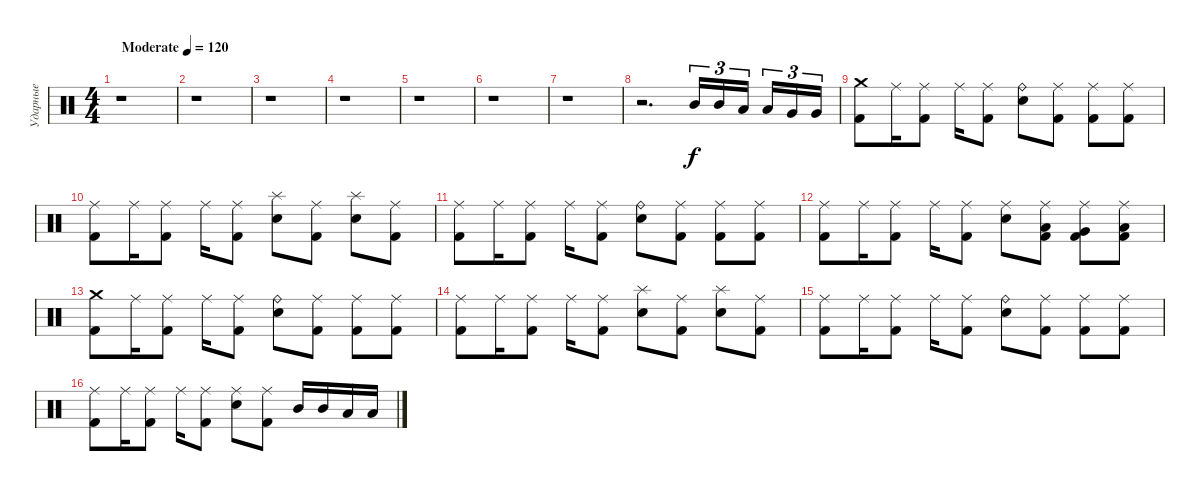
\track ("Ударные" "Ударные") {instrument percussion}
\staff {score}
\articulation defaults
\ts (4 4)
\tempo (120 "Moderate")
\clef neutral
\ks c
r.1{dy f} |
r.1 |
r.1 |
r.1 |
r.1 |
r.1 |
r.1 |
r.2{d} "Mid Tom (hit)".16{tu (3 2)} "Mid Tom (hit)".16{tu (3 2)} "Low Tom (hit)".16{tu (3 2) beam splitsecondary} "Low Tom (hit)".16{tu (3 2)} "Very Low Tom (hit)".16{tu (3 2)} "Very Low Tom (hit)".16{tu (3 2)} |
("Crash medium (hit)" "Kick (hit) 2").8 "Ride (middle)".16 ("Ride (middle)" "Kick (hit) 2").8 "Ride (middle)".16 ("Ride (middle)" "Kick (hit) 2").8 ("Ride (bell)" "Electric Snare (hit)").8 ("Ride (middle)" "Kick (hit) 2").8 ("Ride (middle)" "Kick (hit) 2").8 ("Ride (middle)" "Kick (hit) 2").8 |
("Ride (middle)" "Kick (hit) 2").8 "Ride (middle)".16 ("Ride (middle)" "Kick (hit) 2").8 "Ride (middle)".16 ("Ride (middle)" "Kick (hit) 2").8 ("Splash (hit)" "Electric Snare (hit)").8 ("Ride (middle)" "Kick (hit) 2").8 ("Splash (hit)" "Electric Snare (hit)").8 ("Ride (middle)" "Kick (hit) 2").8 |
("Ride (middle)" "Kick (hit) 2").8 "Ride (middle)".16 ("Ride (middle)" "Kick (hit) 2").8 "Ride (middle)".16 ("Ride (middle)" "Kick (hit) 2").8 ("Ride (bell)" "Electric Snare (hit)").8 ("Ride (middle)" "Kick (hit) 2").8 ("Ride (middle)" "Kick (hit) 2").8 ("Ride (middle)" "Kick (hit) 2").8 |
("Ride (middle)" "Kick (hit) 2").8 "Ride (middle)".16 ("Ride (middle)" "Kick (hit) 2").8 "Ride (middle)".16 ("Ride (middle)" "Kick (hit) 2").8 ("Ride (middle)" "Electric Snare (hit)").8 ("Ride (middle)" "Low Tom (hit)" "Kick (hit) 2").8 ("Ride (middle)" "Very Low Tom (hit)" "Kick (hit) 2").8 ("Ride (middle)" "Low Floor Tom (hit)" "Kick (hit) 2").8 |
("Crash medium (hit)" "Kick (hit) 2").8 "Ride (middle)".16 ("Ride (middle)" "Kick (hit) 2").8 "Ride (middle)".16 ("Ride (middle)" "Kick (hit) 2").8 ("Ride (bell)" "Electric Snare (hit)").8 ("Ride (middle)" "Kick (hit) 2").8 ("Ride (middle)" "Kick (hit) 2").8 ("Ride (middle)" "Kick (hit) 2").8 |
("Ride (middle)" "Kick (hit) 2").8 "Ride (middle)".16 ("Ride (middle)" "Kick (hit) 2").8 "Ride (middle)".16 ("Ride (middle)" "Kick (hit) 2").8 ("Splash (hit)" "Electric Snare (hit)").8 ("Ride (middle)" "Kick (hit) 2").8 ("Splash (hit)" "Electric Snare (hit)").8 ("Ride (middle)" "Kick (hit) 2").8 |
("Ride (middle)" "Kick (hit) 2").8 "Ride (middle)".16 ("Ride (middle)" "Kick (hit) 2").8 "Ride (middle)".16 ("Ride (middle)" "Kick (hit) 2").8 ("Ride (bell)" "Electric Snare (hit)").8 ("Ride (middle)" "Kick (hit) 2").8 ("Ride (middle)" "Kick (hit) 2").8 ("Ride (middle)" "Kick (hit) 2").8 |
("Ride (middle)" "Kick (hit) 2").8 "Ride (middle)".16 ("Ride (middle)" "Kick (hit) 2").8 "Ride (middle)".16 ("Ride (middle)" "Kick (hit) 2").8 ("Ride (middle)" "Electric Snare (hit)").8 ("Ride (middle)" "Kick (hit) 2").8 "Mid Tom (hit)".16 "Mid Tom (hit)".16 "Low Tom (hit)".16 "Low Tom (hit)".16
